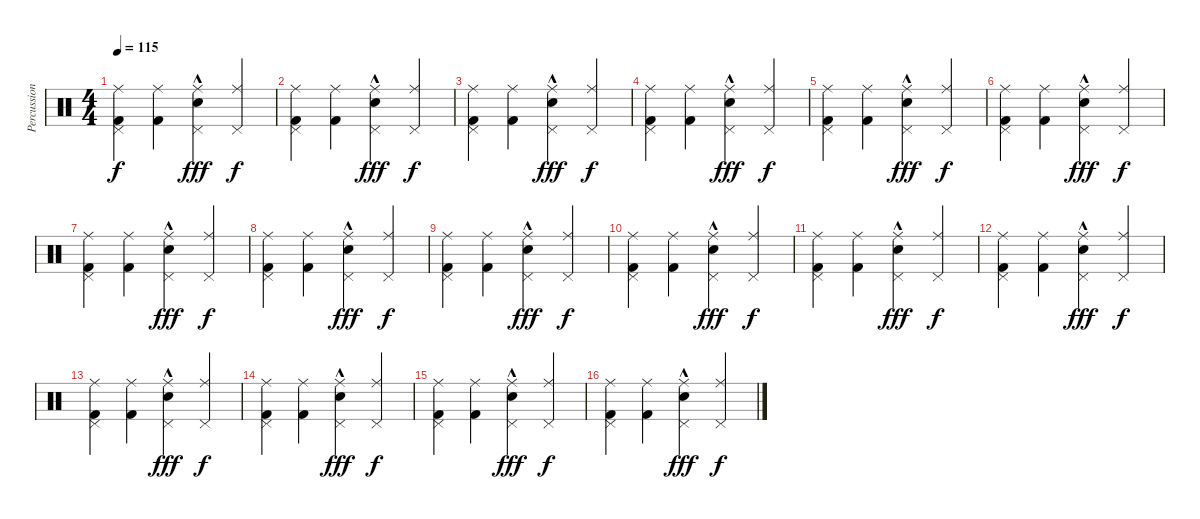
\track ("Percussion" "Percussion") {instrument percussion}
\staff {score}
\articulation defaults
\ts (4 4)
\tempo 115
\clef neutral
\ks c
("Ride (middle)" "Pedal Hi-Hat (hit)" "Kick (hit) 2").4{dy f} ("Ride (middle)" "Kick (hit) 2").4 ("Ride (middle)" "Snare (hit) 2"{hac} "Pedal Hi-Hat (hit)").4{dy fff} ("Ride (middle)" "Pedal Hi-Hat (hit)").4{dy f} |
("Ride (middle)" "Pedal Hi-Hat (hit)" "Kick (hit) 2").4 ("Ride (middle)" "Kick (hit) 2").4 ("Ride (middle)" "Snare (hit) 2"{hac} "Pedal Hi-Hat (hit)").4{dy fff} ("Ride (middle)" "Pedal Hi-Hat (hit)").4{dy f} |
("Ride (middle)" "Pedal Hi-Hat (hit)" "Kick (hit) 2").4 ("Ride (middle)" "Kick (hit) 2").4 ("Ride (middle)" "Snare (hit) 2"{hac} "Pedal Hi-Hat (hit)").4{dy fff} ("Ride (middle)" "Pedal Hi-Hat (hit)").4{dy f} |
("Ride (middle)" "Pedal Hi-Hat (hit)" "Kick (hit) 2").4 ("Ride (middle)" "Kick (hit) 2").4 ("Ride (middle)" "Snare (hit) 2"{hac} "Pedal Hi-Hat (hit)").4{dy fff} ("Ride (middle)" "Pedal Hi-Hat (hit)").4{dy f} |
("Ride (middle)" "Pedal Hi-Hat (hit)" "Kick (hit) 2").4 ("Ride (middle)" "Kick (hit) 2").4 ("Ride (middle)" "Snare (hit) 2"{hac} "Pedal Hi-Hat (hit)").4{dy fff} ("Ride (middle)" "Pedal Hi-Hat (hit)").4{dy f} |
("Ride (middle)" "Pedal Hi-Hat (hit)" "Kick (hit) 2").4 ("Ride (middle)" "Kick (hit) 2").4 ("Ride (middle)" "Snare (hit) 2"{hac} "Pedal Hi-Hat (hit)").4{dy fff} ("Ride (middle)" "Pedal Hi-Hat (hit)").4{dy f} |
("Ride (middle)" "Pedal Hi-Hat (hit)" "Kick (hit) 2").4 ("Ride (middle)" "Kick (hit) 2").4 ("Ride (middle)" "Snare (hit) 2"{hac} "Pedal Hi-Hat (hit)").4{dy fff} ("Ride (middle)" "Pedal Hi-Hat (hit)").4{dy f} |
("Ride (middle)" "Pedal Hi-Hat (hit)" "Kick (hit) 2").4 ("Ride (middle)" "Kick (hit) 2").4 ("Ride (middle)" "Snare (hit) 2"{hac} "Pedal Hi-Hat (hit)").4{dy fff} ("Ride (middle)" "Pedal Hi-Hat (hit)").4{dy f} |
("Ride (middle)" "Pedal Hi-Hat (hit)" "Kick (hit) 2").4 ("Ride (middle)" "Kick (hit) 2").4 ("Ride (middle)" "Snare (hit) 2"{hac} "Pedal Hi-Hat (hit)").4{dy fff} ("Ride (middle)" "Pedal Hi-Hat (hit)").4{dy f} |
("Ride (middle)" "Pedal Hi-Hat (hit)" "Kick (hit) 2").4 ("Ride (middle)" "Kick (hit) 2").4 ("Ride (middle)" "Snare (hit) 2"{hac} "Pedal Hi-Hat (hit)").4{dy fff} ("Ride (middle)" "Pedal Hi-Hat (hit)").4{dy f} |
("Ride (middle)" "Pedal Hi-Hat (hit)" "Kick (hit) 2").4 ("Ride (middle)" "Kick (hit) 2").4 ("Ride (middle)" "Snare (hit) 2"{hac} "Pedal Hi-Hat (hit)").4{dy fff} ("Ride (middle)" "Pedal Hi-Hat (hit)").4{dy f} |
("Ride (middle)" "Pedal Hi-Hat (hit)" "Kick (hit) 2").4 ("Ride (middle)" "Kick (hit) 2").4 ("Ride (middle)" "Snare (hit) 2"{hac} "Pedal Hi-Hat (hit)").4{dy fff} ("Ride (middle)" "Pedal Hi-Hat (hit)").4{dy f} |
("Ride (middle)" "Pedal Hi-Hat (hit)" "Kick (hit) 2").4 ("Ride (middle)" "Kick (hit) 2").4 ("Ride (middle)" "Snare (hit) 2"{hac} "Pedal Hi-Hat (hit)").4{dy fff} ("Ride (middle)" "Pedal Hi-Hat (hit)").4{dy f} |
("Ride (middle)" "Pedal Hi-Hat (hit)" "Kick (hit) 2").4 ("Ride (middle)" "Kick (hit) 2").4 ("Ride (middle)" "Snare (hit) 2"{hac} "Pedal Hi-Hat (hit)").4{dy fff} ("Ride (middle)" "Pedal Hi-Hat (hit)").4{dy f} |
("Ride (middle)" "Pedal Hi-Hat (hit)" "Kick (hit) 2").4 ("Ride (middle)" "Kick (hit) 2").4 ("Ride (middle)" "Snare (hit) 2"{hac} "Pedal Hi-Hat (hit)").4{dy fff} ("Ride (middle)" "Pedal Hi-Hat (hit)").4{dy f} |
("Ride (middle)" "Pedal Hi-Hat (hit)" "Kick (hit) 2").4 ("Ride (middle)" "Kick (hit) 2").4 ("Ride (middle)" "Snare (hit) 2"{hac} "Pedal Hi-Hat (hit)").4{dy fff} ("Ride (middle)" "Pedal Hi-Hat (hit)").4{dy f}
